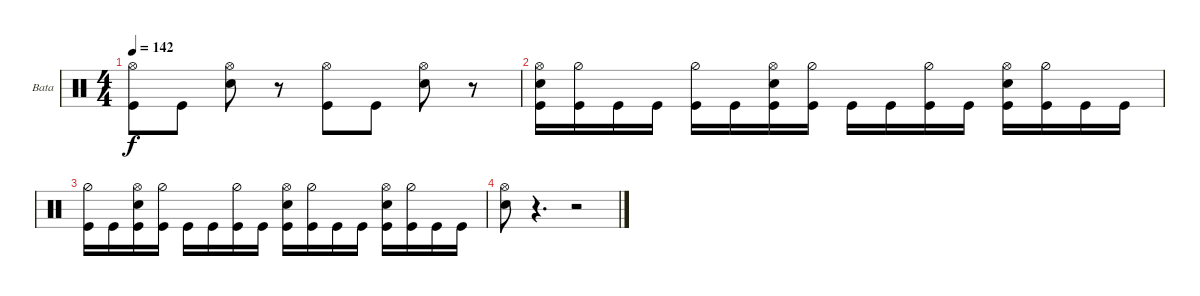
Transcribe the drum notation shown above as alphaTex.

\bracketExtendMode groupsimilarinstruments
\firstSystemTrackNameOrientation horizontal
\otherSystemsTrackNameOrientation horizontal
\track ("Bateria" "Bata") {instrument percussion}
\staff {score}
\articulation defaults
\ts (4 4)
\tempo 142
\clef neutral
\ks c
("Kick (hit)" "Hi-Hat (open)").8{dy f} "Kick (hit)".8 ("Hi-Hat (open)" "Snare (hit) 2").8 r.8 ("Hi-Hat (open)" "Kick (hit)").8 "Kick (hit)".8 ("Snare (hit) 2" "Hi-Hat (open)").8 r.8 |
("Kick (hit)" "Snare (hit) 2" "Hi-Hat (open)").16 ("Kick (hit)" "Hi-Hat (half)").16 "Kick (hit)".16 "Kick (hit)".16 ("Kick (hit)" "Hi-Hat (half)").16 "Kick (hit)".16 ("Kick (hit)" "Snare (hit) 2" "Hi-Hat (open)").16 ("Kick (hit)" "Hi-Hat (half)").16 "Kick (hit)".16 "Kick (hit)".16 ("Kick (hit)" "Hi-Hat (half)").16 "Kick (hit)".16 ("Kick (hit)" "Snare (hit) 2" "Hi-Hat (open)").16 ("Kick (hit)" "Hi-Hat (half)").16 "Kick (hit)".16 "Kick (hit)".16 |
("Kick (hit)" "Hi-Hat (half)").16 "Kick (hit)".16 ("Kick (hit)" "Snare (hit) 2" "Hi-Hat (open)").16 ("Kick (hit)" "Hi-Hat (half)").16 "Kick (hit)".16 "Kick (hit)".16 ("Kick (hit)" "Hi-Hat (half)").16 "Kick (hit)".16 ("Kick (hit)" "Snare (hit) 2" "Hi-Hat (open)").16 ("Kick (hit)" "Hi-Hat (half)").16 "Kick (hit)".16 "Kick (hit)".16 ("Kick (hit)" "Snare (hit) 2" "Hi-Hat (open)").16 ("Kick (hit)" "Hi-Hat (half)").16 "Kick (hit)".16 "Kick (hit)".16 |
("Snare (hit) 2" "Hi-Hat (open)").8 r.4{d} r.2
